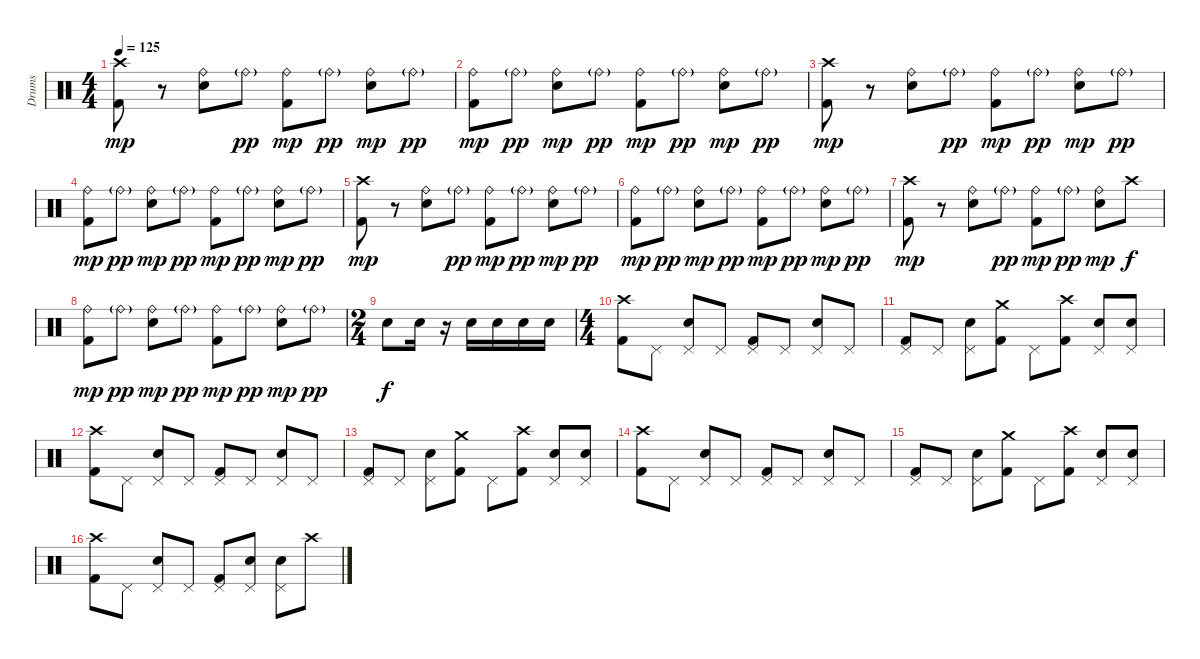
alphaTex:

\track ("Drums" "Drums") {instrument percussion}
\staff {score}
\articulation defaults
\ts (4 4)
\tempo 125
\clef neutral
\ks c
("Crash high (hit)" "Kick (hit) 2").8{dy mp} r.8 ("Ride (bell)" "Snare (hit) 2").8 "Ride (bell)"{g}.8{dy pp} ("Ride (bell)" "Kick (hit) 2").8{dy mp} "Ride (bell)"{g}.8{dy pp} ("Ride (bell)" "Snare (hit) 2").8{dy mp} "Ride (bell)"{g}.8{dy pp} |
("Ride (bell)" "Kick (hit) 2").8{dy mp} "Ride (bell)"{g}.8{dy pp} ("Ride (bell)" "Snare (hit) 2").8{dy mp} "Ride (bell)"{g}.8{dy pp} ("Ride (bell)" "Kick (hit) 2").8{dy mp} "Ride (bell)"{g}.8{dy pp} ("Ride (bell)" "Snare (hit) 2").8{dy mp} "Ride (bell)"{g}.8{dy pp} |
("Crash high (hit)" "Kick (hit) 2").8{dy mp} r.8 ("Ride (bell)" "Snare (hit) 2").8 "Ride (bell)"{g}.8{dy pp} ("Ride (bell)" "Kick (hit) 2").8{dy mp} "Ride (bell)"{g}.8{dy pp} ("Ride (bell)" "Snare (hit) 2").8{dy mp} "Ride (bell)"{g}.8{dy pp} |
("Ride (bell)" "Kick (hit) 2").8{dy mp} "Ride (bell)"{g}.8{dy pp} ("Ride (bell)" "Snare (hit) 2").8{dy mp} "Ride (bell)"{g}.8{dy pp} ("Ride (bell)" "Kick (hit) 2").8{dy mp} "Ride (bell)"{g}.8{dy pp} ("Ride (bell)" "Snare (hit) 2").8{dy mp} "Ride (bell)"{g}.8{dy pp} |
("Crash high (hit)" "Kick (hit) 2").8{dy mp} r.8 ("Ride (bell)" "Snare (hit) 2").8 "Ride (bell)"{g}.8{dy pp} ("Ride (bell)" "Kick (hit) 2").8{dy mp} "Ride (bell)"{g}.8{dy pp} ("Ride (bell)" "Snare (hit) 2").8{dy mp} "Ride (bell)"{g}.8{dy pp} |
("Ride (bell)" "Kick (hit) 2").8{dy mp} "Ride (bell)"{g}.8{dy pp} ("Ride (bell)" "Snare (hit) 2").8{dy mp} "Ride (bell)"{g}.8{dy pp} ("Ride (bell)" "Kick (hit) 2").8{dy mp} "Ride (bell)"{g}.8{dy pp} ("Ride (bell)" "Snare (hit) 2").8{dy mp} "Ride (bell)"{g}.8{dy pp} |
("Crash high (hit)" "Kick (hit) 2").8{dy mp} r.8 ("Ride (bell)" "Snare (hit) 2").8 "Ride (bell)"{g}.8{dy pp} ("Ride (bell)" "Kick (hit) 2").8{dy mp} "Ride (bell)"{g}.8{dy pp} ("Ride (bell)" "Snare (hit) 2").8{dy mp} "Crash high (hit)".8{dy f} |
("Ride (bell)" "Kick (hit) 2").8{dy mp} "Ride (bell)"{g}.8{dy pp} ("Ride (bell)" "Snare (hit) 2").8{dy mp} "Ride (bell)"{g}.8{dy pp} ("Ride (bell)" "Kick (hit) 2").8{dy mp} "Ride (bell)"{g}.8{dy pp} ("Ride (bell)" "Snare (hit) 2").8{dy mp} "Ride (bell)"{g}.8{dy pp} |
\ts (2 4)
"Snare (hit) 2".8{dy f} "Snare (hit) 2".16 r.16 "Snare (hit) 2".16 "Snare (hit) 2".16 "Snare (hit) 2".16 "Snare (hit) 2".16 |
\ts (4 4)
("Crash high (hit)" "Kick (hit) 2").8 "Pedal Hi-Hat (hit)".8 ("Pedal Hi-Hat (hit)" "Snare (hit) 2").8 "Pedal Hi-Hat (hit)".8 ("Pedal Hi-Hat (hit)" "Kick (hit) 2").8 "Pedal Hi-Hat (hit)".8 ("Pedal Hi-Hat (hit)" "Snare (hit) 2").8 "Pedal Hi-Hat (hit)".8 |
("Pedal Hi-Hat (hit)" "Kick (hit) 2").8 "Pedal Hi-Hat (hit)".8 ("Pedal Hi-Hat (hit)" "Snare (hit) 2").8 ("Crash medium (hit)" "Kick (hit) 2").8 "Pedal Hi-Hat (hit)".8 ("Crash high (hit)" "Kick (hit) 2").8 ("Pedal Hi-Hat (hit)" "Snare (hit) 2").8 ("Pedal Hi-Hat (hit)" "Snare (hit) 2").8 |
("Crash high (hit)" "Kick (hit) 2").8 "Pedal Hi-Hat (hit)".8 ("Pedal Hi-Hat (hit)" "Snare (hit) 2").8 "Pedal Hi-Hat (hit)".8 ("Pedal Hi-Hat (hit)" "Kick (hit) 2").8 "Pedal Hi-Hat (hit)".8 ("Pedal Hi-Hat (hit)" "Snare (hit) 2").8 "Pedal Hi-Hat (hit)".8 |
("Pedal Hi-Hat (hit)" "Kick (hit) 2").8 "Pedal Hi-Hat (hit)".8 ("Pedal Hi-Hat (hit)" "Snare (hit) 2").8 ("Crash medium (hit)" "Kick (hit) 2").8 "Pedal Hi-Hat (hit)".8 ("Crash high (hit)" "Kick (hit) 2").8 ("Pedal Hi-Hat (hit)" "Snare (hit) 2").8 ("Pedal Hi-Hat (hit)" "Snare (hit) 2").8 |
("Crash high (hit)" "Kick (hit) 2").8 "Pedal Hi-Hat (hit)".8 ("Pedal Hi-Hat (hit)" "Snare (hit) 2").8 "Pedal Hi-Hat (hit)".8 ("Pedal Hi-Hat (hit)" "Kick (hit) 2").8 "Pedal Hi-Hat (hit)".8 ("Pedal Hi-Hat (hit)" "Snare (hit) 2").8 "Pedal Hi-Hat (hit)".8 |
("Pedal Hi-Hat (hit)" "Kick (hit) 2").8 "Pedal Hi-Hat (hit)".8 ("Pedal Hi-Hat (hit)" "Snare (hit) 2").8 ("Crash medium (hit)" "Kick (hit) 2").8 "Pedal Hi-Hat (hit)".8 ("Crash high (hit)" "Kick (hit) 2").8 ("Pedal Hi-Hat (hit)" "Snare (hit) 2").8 ("Pedal Hi-Hat (hit)" "Snare (hit) 2").8 |
("Crash high (hit)" "Kick (hit) 2").8 "Pedal Hi-Hat (hit)".8 ("Pedal Hi-Hat (hit)" "Snare (hit) 2").8 "Pedal Hi-Hat (hit)".8 ("Pedal Hi-Hat (hit)" "Kick (hit) 2").8 ("Pedal Hi-Hat (hit)" "Snare (hit) 2").8 ("Pedal Hi-Hat (hit)" "Snare (hit) 2").8 "Crash high (hit)".8
